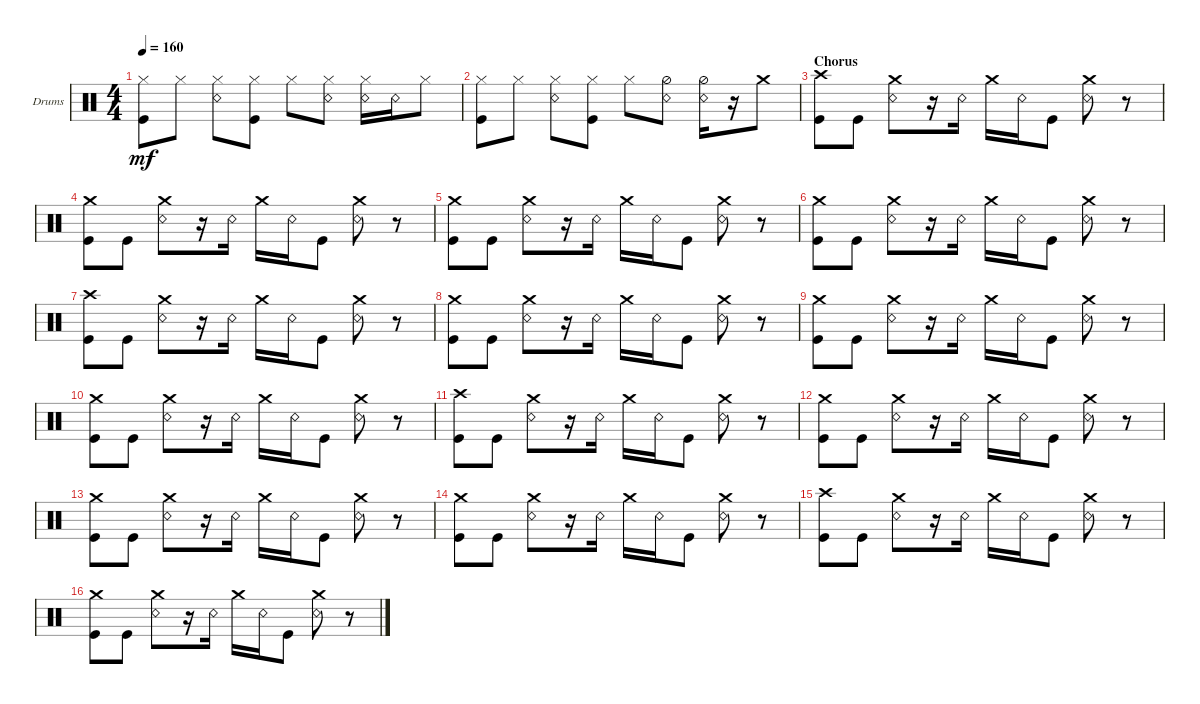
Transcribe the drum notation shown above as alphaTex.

\defaultSystemsLayout 4
\bracketExtendMode groupsimilarinstruments
\firstSystemTrackNameOrientation horizontal
\otherSystemsTrackNameOrientation horizontal
\track ("Drumkit" "Drums") {instrument percussion}
\staff {score}
\articulation defaults
\ts (4 4)
\tempo 160
\clef neutral
\ks c
("Kick (hit)" "Hi-Hat (closed)").8{dy mf} "Hi-Hat (closed)".8 ("Snare (rim shot)" "Hi-Hat (closed)").8 ("Hi-Hat (closed)" "Kick (hit)").8 "Hi-Hat (closed)".8 ("Snare (rim shot)" "Hi-Hat (closed)").8 ("Snare (rim shot)" "Hi-Hat (closed)").16 "Snare (rim shot)".16 "Hi-Hat (closed)".8 |
("Kick (hit)" "Hi-Hat (closed)").8 "Hi-Hat (closed)".8 ("Snare (rim shot)" "Hi-Hat (closed)").8 ("Hi-Hat (closed)" "Kick (hit)").8 "Hi-Hat (closed)".8 ("Snare (rim shot)" "Hi-Hat (half)").8 ("Snare (rim shot)" "Hi-Hat (half)").16 r.16 "Crash medium (hit)".8 |
\section ("" "Chorus")
("Kick (hit)" "Crash high (hit)").8 "Kick (hit)".8 ("Snare (rim shot)" "Crash medium (hit)").8 r.16 "Snare (rim shot)".16 "Crash medium (hit)".16 "Snare (rim shot)".16 "Kick (hit)".8 ("Snare (rim shot)" "Crash medium (hit)").8 r.8 |
("Kick (hit)" "Crash medium (hit)").8 "Kick (hit)".8 ("Snare (rim shot)" "Crash medium (hit)").8 r.16 "Snare (rim shot)".16 "Crash medium (hit)".16 "Snare (rim shot)".16 "Kick (hit)".8 ("Snare (rim shot)" "Crash medium (hit)").8 r.8 |
("Kick (hit)" "Crash medium (hit)").8 "Kick (hit)".8 ("Snare (rim shot)" "Crash medium (hit)").8 r.16 "Snare (rim shot)".16 "Crash medium (hit)".16 "Snare (rim shot)".16 "Kick (hit)".8 ("Snare (rim shot)" "Crash medium (hit)").8 r.8 |
("Kick (hit)" "Crash medium (hit)").8 "Kick (hit)".8 ("Snare (rim shot)" "Crash medium (hit)").8 r.16 "Snare (rim shot)".16 "Crash medium (hit)".16 "Snare (rim shot)".16 "Kick (hit)".8 ("Snare (rim shot)" "Crash medium (hit)").8 r.8 |
("Kick (hit)" "Crash high (hit)").8 "Kick (hit)".8 ("Snare (rim shot)" "Crash medium (hit)").8 r.16 "Snare (rim shot)".16 "Crash medium (hit)".16 "Snare (rim shot)".16 "Kick (hit)".8 ("Snare (rim shot)" "Crash medium (hit)").8 r.8 |
("Kick (hit)" "Crash medium (hit)").8 "Kick (hit)".8 ("Snare (rim shot)" "Crash medium (hit)").8 r.16 "Snare (rim shot)".16 "Crash medium (hit)".16 "Snare (rim shot)".16 "Kick (hit)".8 ("Snare (rim shot)" "Crash medium (hit)").8 r.8 |
("Kick (hit)" "Crash medium (hit)").8 "Kick (hit)".8 ("Snare (rim shot)" "Crash medium (hit)").8 r.16 "Snare (rim shot)".16 "Crash medium (hit)".16 "Snare (rim shot)".16 "Kick (hit)".8 ("Snare (rim shot)" "Crash medium (hit)").8 r.8 |
("Kick (hit)" "Crash medium (hit)").8 "Kick (hit)".8 ("Snare (rim shot)" "Crash medium (hit)").8 r.16 "Snare (rim shot)".16 "Crash medium (hit)".16 "Snare (rim shot)".16 "Kick (hit)".8 ("Snare (rim shot)" "Crash medium (hit)").8 r.8 |
("Kick (hit)" "Crash high (hit)").8 "Kick (hit)".8 ("Snare (rim shot)" "Crash medium (hit)").8 r.16 "Snare (rim shot)".16 "Crash medium (hit)".16 "Snare (rim shot)".16 "Kick (hit)".8 ("Snare (rim shot)" "Crash medium (hit)").8 r.8 |
("Kick (hit)" "Crash medium (hit)").8 "Kick (hit)".8 ("Snare (rim shot)" "Crash medium (hit)").8 r.16 "Snare (rim shot)".16 "Crash medium (hit)".16 "Snare (rim shot)".16 "Kick (hit)".8 ("Snare (rim shot)" "Crash medium (hit)").8 r.8 |
("Kick (hit)" "Crash medium (hit)").8 "Kick (hit)".8 ("Snare (rim shot)" "Crash medium (hit)").8 r.16 "Snare (rim shot)".16 "Crash medium (hit)".16 "Snare (rim shot)".16 "Kick (hit)".8 ("Snare (rim shot)" "Crash medium (hit)").8 r.8 |
("Kick (hit)" "Crash medium (hit)").8 "Kick (hit)".8 ("Snare (rim shot)" "Crash medium (hit)").8 r.16 "Snare (rim shot)".16 "Crash medium (hit)".16 "Snare (rim shot)".16 "Kick (hit)".8 ("Snare (rim shot)" "Crash medium (hit)").8 r.8 |
("Kick (hit)" "Crash high (hit)").8 "Kick (hit)".8 ("Snare (rim shot)" "Crash medium (hit)").8 r.16 "Snare (rim shot)".16 "Crash medium (hit)".16 "Snare (rim shot)".16 "Kick (hit)".8 ("Snare (rim shot)" "Crash medium (hit)").8 r.8 |
("Kick (hit)" "Crash medium (hit)").8 "Kick (hit)".8 ("Snare (rim shot)" "Crash medium (hit)").8 r.16 "Snare (rim shot)".16 "Crash medium (hit)".16 "Snare (rim shot)".16 "Kick (hit)".8 ("Snare (rim shot)" "Crash medium (hit)").8 r.8
